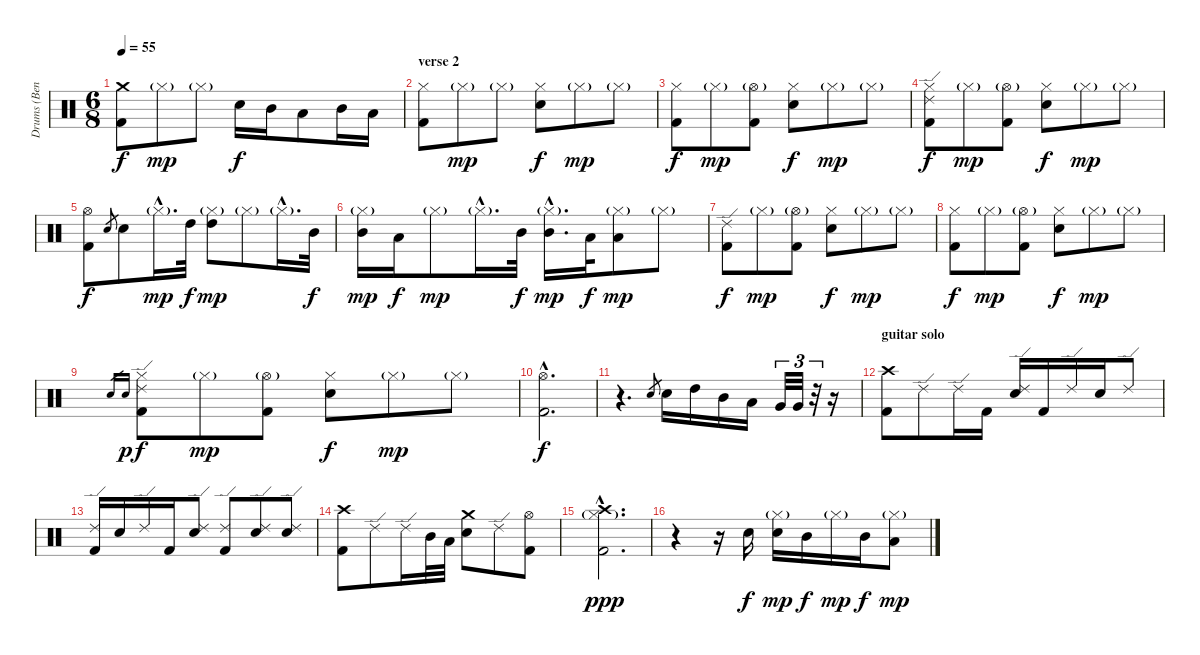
\track ("Drums (Bengerg)" "Drums (Ben") {instrument percussion}
\staff {score}
\articulation defaults
\ts (6 8)
\tempo 55
\clef neutral
\ks c
("Crash medium (hit)" "Kick (hit) 2").8{dy f} "Hi-Hat (closed)"{g}.8{dy mp} "Hi-Hat (closed)"{g}.8 "Electric Snare (hit)".16{dy f} "Mid Tom (hit)".16 "Low Tom (hit)".8 "Mid Tom (hit)".16 "Low Tom (hit)".16 |
\section ("" "verse 2")
("Hi-Hat (closed)" "Kick (hit) 2").8 "Hi-Hat (closed)"{g}.8{dy mp} "Hi-Hat (closed)"{g}.8 ("Hi-Hat (closed)" "Electric Snare (hit)").8{dy f} "Hi-Hat (closed)"{g}.8{dy mp} "Hi-Hat (closed)"{g}.8 |
("Hi-Hat (closed)" "Kick (hit) 2").8{dy f} "Hi-Hat (closed)"{g}.8{dy mp} ("Hi-Hat (open)"{g} "Kick (hit) 2").8 ("Hi-Hat (closed)" "Electric Snare (hit)").8{dy f} "Hi-Hat (closed)"{g}.8{dy mp} "Hi-Hat (closed)"{g}.8 |
("Hi-Hat (closed)" "Ride (edge) 2" "Kick (hit) 2").8{dy f} "Hi-Hat (closed)"{g}.8{dy mp} ("Hi-Hat (open)"{g} "Kick (hit) 2").8 ("Hi-Hat (closed)" "Electric Snare (hit)").8{dy f} "Hi-Hat (closed)"{g}.8{dy mp} "Hi-Hat (closed)"{g}.8 |
("Hi-Hat (open)" "Kick (hit) 2").8{dy f} "Electric Snare (hit)".8{gr} "Electric Snare (hit)".8 "Hi-Hat (closed)"{g hac}.16{d dy mp} "High Tom (hit)".32{dy f} ("Hi-Hat (closed)"{g} "High Tom (hit)").8{dy mp} "Hi-Hat (closed)"{g}.8 "Hi-Hat (closed)"{g hac}.16{d} "Mid Tom (hit)".32{dy f} |
("Hi-Hat (closed)"{g} "Mid Tom (hit)").16{dy mp} "Low Tom (hit)".16{dy f} "Hi-Hat (closed)"{g}.8{dy mp} "Hi-Hat (closed)"{g hac}.16{d} "Mid Tom (hit)".32{dy f} ("Hi-Hat (closed)"{g hac} "Mid Tom (hit)"{hac}).16{d dy mp} "Low Tom (hit)".32{dy f} ("Hi-Hat (closed)"{g} "Low Tom (hit)").8{dy mp} "Hi-Hat (closed)"{g}.8 |
("Ride (edge) 2" "Kick (hit) 2").8{dy f} "Hi-Hat (closed)"{g}.8{dy mp} ("Hi-Hat (open)"{g} "Kick (hit) 2").8 ("Hi-Hat (closed)" "Electric Snare (hit)").8{dy f} "Hi-Hat (closed)"{g}.8{dy mp} "Hi-Hat (closed)"{g}.8 |
("Hi-Hat (closed)" "Kick (hit) 2").8{dy f} "Hi-Hat (closed)"{g}.8{dy mp} ("Hi-Hat (open)"{g} "Kick (hit) 2").8 ("Hi-Hat (closed)" "Electric Snare (hit)").8{dy f} "Hi-Hat (closed)"{g}.8{dy mp} "Hi-Hat (closed)"{g}.8 |
"Electric Snare (hit)".16{gr} "Electric Snare (hit)".16{gr dy p} ("Hi-Hat (closed)" "Ride (edge) 2" "Kick (hit) 2").8{dy f} "Hi-Hat (closed)"{g}.8{dy mp} ("Hi-Hat (open)"{g} "Kick (hit) 2").8 ("Hi-Hat (closed)" "Electric Snare (hit)").8{dy f} "Hi-Hat (closed)"{g}.8{dy mp} "Hi-Hat (closed)"{g}.8 |
("Hi-Hat (open)"{hac} "Kick (hit) 2"{hac}).2{d dy f} |
r.4{d} "Electric Snare (hit)".8{gr} "Electric Snare (hit)".16 "High Tom (hit)".16 "Mid Tom (hit)".16 "Low Tom (hit)".16 "Very Low Tom (hit)".32{tu (3 2)} "Very Low Tom (hit)".32{tu (3 2)} r.32{tu (3 2)} r.16 |
\section ("" "guitar solo")
("Crash high (hit)" "Kick (hit) 2").8 "Ride (edge) 2".8 "Ride (edge) 2".16 "Kick (hit) 2".16 ("Ride (edge) 2" "Electric Snare (hit)").16 "Kick (hit) 2".16 "Ride (edge) 2".16 "Electric Snare (hit)".16 "Ride (edge) 2".8 |
("Ride (edge) 2" "Kick (hit) 2").16 "Electric Snare (hit)".16 "Ride (edge) 2".16 "Kick (hit) 2".16 ("Ride (edge) 2" "Electric Snare (hit)").8 ("Ride (edge) 2" "Kick (hit) 2").8 ("Ride (edge) 2" "Electric Snare (hit)").8 ("Ride (edge) 2" "Electric Snare (hit)").8 |
("Crash high (hit)" "Kick (hit) 2").8 "Ride (edge) 2".8 "Ride (edge) 2".16 "Mid Tom (hit)".32 "Low Tom (hit)".32 ("Crash medium (hit)" "Electric Snare (hit)").8 "Ride (edge) 2".8 ("Hi-Hat (open)" "Kick (hit) 2").8 |
("Crash high (hit)"{hac} "Hi-Hat (closed)"{g hac} "Kick (hit) 2"{hac}).2{d dy ppp} |
r.4 r.16 "Electric Snare (hit)".16{dy f} ("Hi-Hat (closed)"{g} "Electric Snare (hit)").16{dy mp} "Mid Tom (hit)".16{dy f} "Hi-Hat (closed)"{g}.16{dy mp} "Mid Tom (hit)".16{dy f} ("Hi-Hat (closed)"{g} "Low Tom (hit)").8{dy mp}
